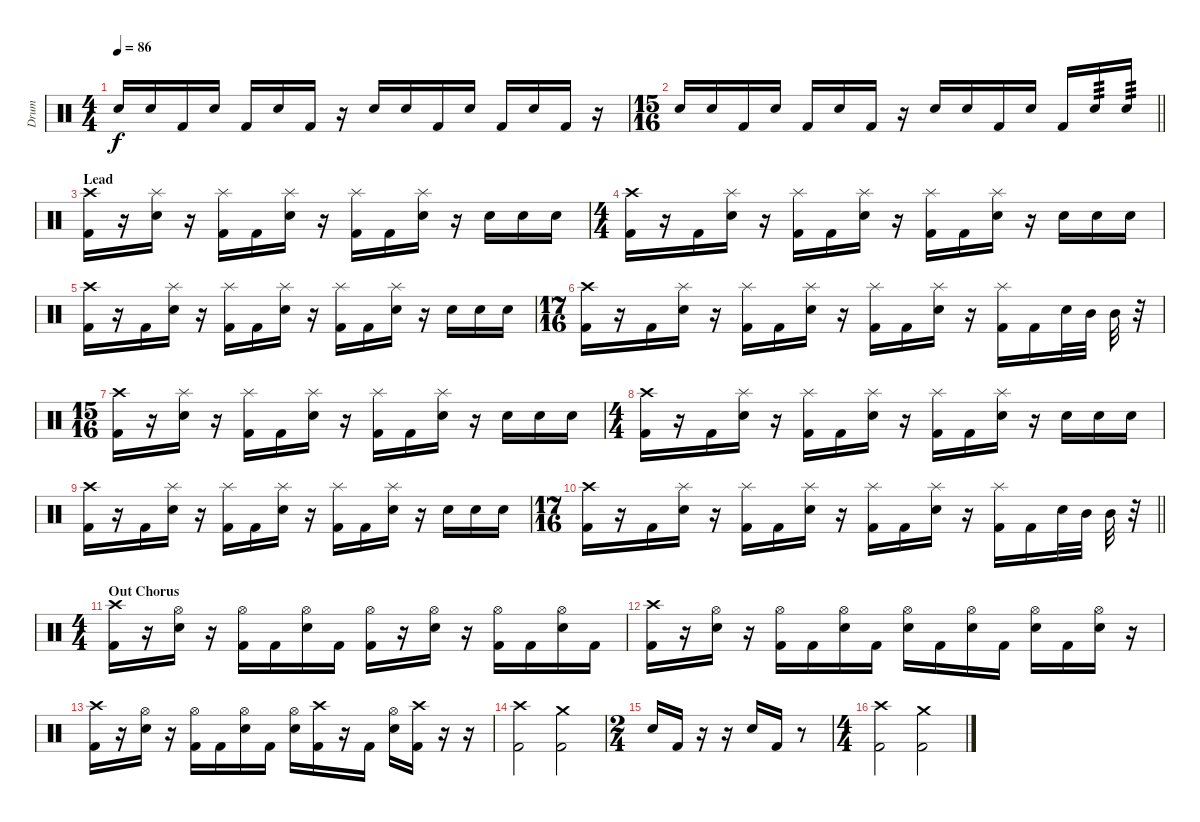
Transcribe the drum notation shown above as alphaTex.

\track ("Drum" "Drum") {instrument percussion}
\staff {score}
\articulation defaults
\ts (4 4)
\tempo 86
\clef neutral
\ks c "Electric Snare (hit)".16{dy f} "Electric Snare (hit)".16 "Kick (hit) 2".16 "Electric Snare (hit)".16 "Kick (hit) 2".16 "Electric Snare (hit)".16 "Kick (hit) 2".16
r.16 "Electric Snare (hit)".16 "Electric Snare (hit)".16 "Kick (hit) 2".16 "Electric Snare (hit)".16 "Kick (hit) 2".16 "Electric Snare (hit)".16 "Kick (hit) 2".16 r.16 |
\ts (15 16)
\barLineRight lightlight "Electric Snare (hit)".16 "Electric Snare (hit)".16 "Kick (hit) 2".16 "Electric Snare (hit)".16 "Kick (hit) 2".16 "Electric Snare (hit)".16 "Kick (hit) 2".16
r.16 "Electric Snare (hit)".16 "Electric Snare (hit)".16 "Kick (hit) 2".16 "Electric Snare (hit)".16 "Kick (hit) 2".16 "Electric Snare (hit)".16{tp 3} "Electric Snare (hit)".16{tp 3} |
\section ("" "Lead")
("Crash high (hit)" "Kick (hit) 2").16 r.16 ("Splash (hit)" "Electric Snare (hit)").16 r.16 ("Splash (hit)" "Kick (hit) 2").16 "Kick (hit) 2".16 ("Splash (hit)" "Electric Snare (hit)").16 r.16 ("Splash (hit)" "Kick (hit) 2").16 "Kick (hit) 2".16 ("Splash (hit)" "Electric Snare (hit)").16 r.16 "Electric Snare (hit)".16 "Electric Snare (hit)".16 "Electric Snare (hit)".16 |
\ts (4 4)
("Crash high (hit)" "Kick (hit) 2").16 r.16 "Kick (hit) 2".16 ("Splash (hit)" "Electric Snare (hit)").16 r.16 ("Splash (hit)" "Kick (hit) 2").16 "Kick (hit) 2".16 ("Splash (hit)" "Electric Snare (hit)").16 r.16 ("Splash (hit)" "Kick (hit) 2").16 "Kick (hit) 2".16 ("Splash (hit)" "Electric Snare (hit)").16 r.16 "Electric Snare (hit)".16 "Electric Snare (hit)".16 "Electric Snare (hit)".16 |
("Crash high (hit)" "Kick (hit) 2").16 r.16 "Kick (hit) 2".16 ("Splash (hit)" "Electric Snare (hit)").16 r.16 ("Splash (hit)" "Kick (hit) 2").16 "Kick (hit) 2".16 ("Splash (hit)" "Electric Snare (hit)").16 r.16 ("Splash (hit)" "Kick (hit) 2").16 "Kick (hit) 2".16 ("Splash (hit)" "Electric Snare (hit)").16 r.16 "Electric Snare (hit)".16 "Electric Snare (hit)".16 "Electric Snare (hit)".16 |
\ts (17 16)
("Crash high (hit)" "Kick (hit) 2").16 r.16 "Kick (hit) 2".16 ("Splash (hit)" "Electric Snare (hit)").16 r.16 ("Splash (hit)" "Kick (hit) 2").16 "Kick (hit) 2".16 ("Splash (hit)" "Electric Snare (hit)").16 r.16 ("Splash (hit)" "Kick (hit) 2").16 "Kick (hit) 2".16 ("Splash (hit)" "Electric Snare (hit)").16 r.16 ("Splash (hit)" "Kick (hit) 2").16 "Kick (hit) 2".16 "Electric Snare (hit)".32 "Mid Tom (hit)".32 "Mid Tom (hit)".32 r.32 |
\ts (15 16)
("Crash high (hit)" "Kick (hit) 2").16 r.16 ("Splash (hit)" "Electric Snare (hit)").16 r.16 ("Splash (hit)" "Kick (hit) 2").16 "Kick (hit) 2".16 ("Splash (hit)" "Electric Snare (hit)").16 r.16 ("Splash (hit)" "Kick (hit) 2").16 "Kick (hit) 2".16 ("Splash (hit)" "Electric Snare (hit)").16 r.16 "Electric Snare (hit)".16 "Electric Snare (hit)".16 "Electric Snare (hit)".16 |
\ts (4 4)
("Crash high (hit)" "Kick (hit) 2").16 r.16 "Kick (hit) 2".16 ("Splash (hit)" "Electric Snare (hit)").16 r.16 ("Splash (hit)" "Kick (hit) 2").16 "Kick (hit) 2".16 ("Splash (hit)" "Electric Snare (hit)").16 r.16 ("Splash (hit)" "Kick (hit) 2").16 "Kick (hit) 2".16 ("Splash (hit)" "Electric Snare (hit)").16 r.16 "Electric Snare (hit)".16 "Electric Snare (hit)".16 "Electric Snare (hit)".16 |
("Crash high (hit)" "Kick (hit) 2").16 r.16 "Kick (hit) 2".16 ("Splash (hit)" "Electric Snare (hit)").16 r.16 ("Splash (hit)" "Kick (hit) 2").16 "Kick (hit) 2".16 ("Splash (hit)" "Electric Snare (hit)").16 r.16 ("Splash (hit)" "Kick (hit) 2").16 "Kick (hit) 2".16 ("Splash (hit)" "Electric Snare (hit)").16 r.16 "Electric Snare (hit)".16 "Electric Snare (hit)".16 "Electric Snare (hit)".16 |
\ts (17 16)
\barLineRight lightlight
("Crash high (hit)" "Kick (hit) 2").16 r.16 "Kick (hit) 2".16 ("Splash (hit)" "Electric Snare (hit)").16 r.16 ("Splash (hit)" "Kick (hit) 2").16 "Kick (hit) 2".16 ("Splash (hit)" "Electric Snare (hit)").16 r.16 ("Splash (hit)" "Kick (hit) 2").16 "Kick (hit) 2".16 ("Splash (hit)" "Electric Snare (hit)").16 r.16 ("Splash (hit)" "Kick (hit) 2").16 "Kick (hit) 2".16 "Electric Snare (hit)".32 "Mid Tom (hit)".32 "Mid Tom (hit)".32 r.32 |
\ts (4 4)
\section ("" "Out Chorus")
("Crash high (hit)" "Kick (hit) 2").16 r.16 ("Hi-Hat (open)" "Electric Snare (hit)").16 r.16 ("Hi-Hat (open)" "Kick (hit) 2").16 "Kick (hit) 2".16 ("Hi-Hat (open)" "Electric Snare (hit)").16 "Kick (hit) 2".16 ("Hi-Hat (open)" "Kick (hit) 2").16 r.16 ("Hi-Hat (open)" "Electric Snare (hit)").16 r.16 ("Hi-Hat (open)" "Kick (hit) 2").16 "Kick (hit) 2".16 ("Hi-Hat (open)" "Electric Snare (hit)").16 "Kick (hit) 2".16 |
("Crash high (hit)" "Kick (hit) 2").16 r.16 ("Hi-Hat (open)" "Electric Snare (hit)").16 r.16 ("Hi-Hat (open)" "Kick (hit) 2").16 "Kick (hit) 2".16 ("Hi-Hat (open)" "Electric Snare (hit)").16 "Kick (hit) 2".16 ("Hi-Hat (open)" "Electric Snare (hit)").16 "Kick (hit) 2".16 ("Hi-Hat (open)" "Electric Snare (hit)").16 "Kick (hit) 2".16 ("Hi-Hat (open)" "Electric Snare (hit)").16 "Kick (hit) 2".16 ("Hi-Hat (open)" "Electric Snare (hit)").16 r.16 |
("Crash high (hit)" "Kick (hit) 2").16 r.16 ("Hi-Hat (open)" "Electric Snare (hit)").16 r.16 ("Hi-Hat (open)" "Kick (hit) 2").16 "Kick (hit) 2".16 ("Hi-Hat (open)" "Electric Snare (hit)").16 "Kick (hit) 2".16 ("Hi-Hat (open)" "Electric Snare (hit)").16 ("Crash high (hit)" "Kick (hit) 2").16 r.16 "Kick (hit) 2".16 ("Hi-Hat (open)" "Electric Snare (hit)").16 ("Crash high (hit)" "Kick (hit) 2").16 r.16 r.16 |
("Crash high (hit)" "Kick (hit) 2").2 ("Crash medium (hit)" "Kick (hit) 2").2 |
\ts (2 4)
"Electric Snare (hit)".16 "Kick (hit) 2".16 r.16 r.16 "Electric Snare (hit)".16 "Kick (hit) 2".16 r.8 |
\ts (4 4)
("Crash high (hit)" "Kick (hit) 2").2 ("Crash medium (hit)" "Kick (hit) 2").2
